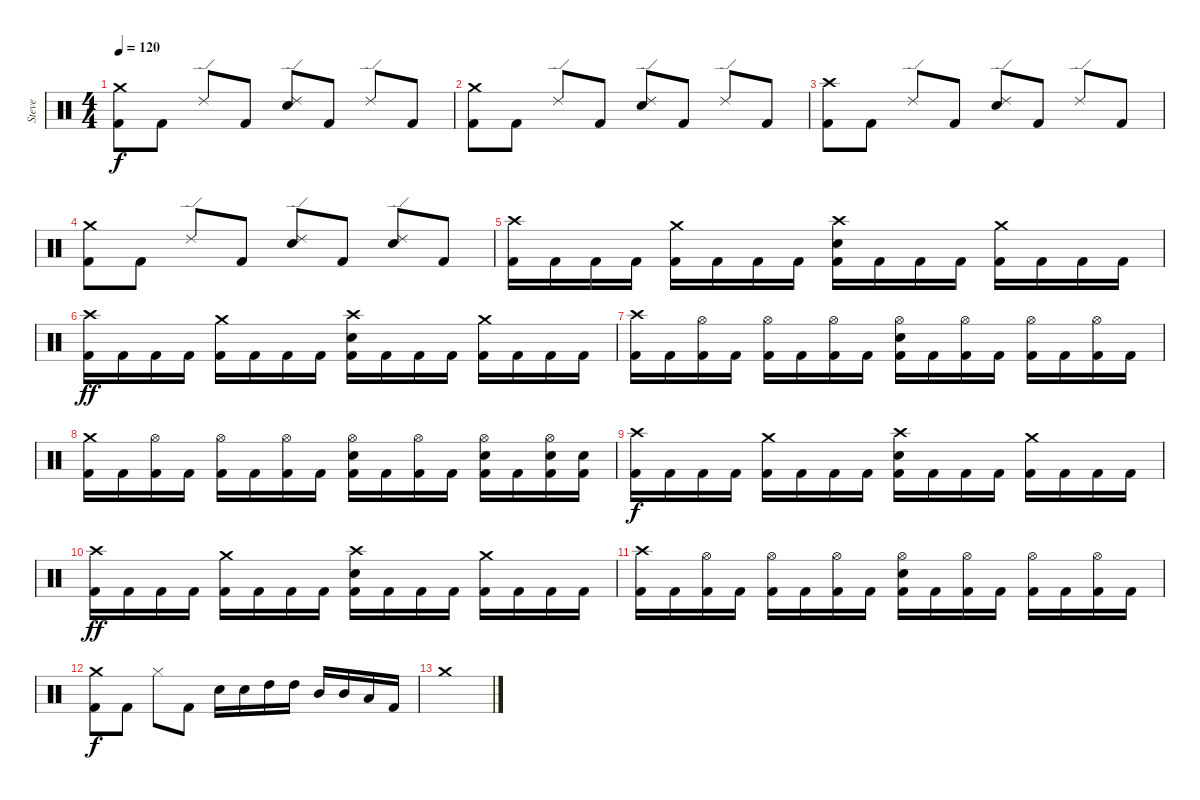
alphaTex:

\track ("Steve" "Steve") {instrument percussion}
\staff {score}
\articulation defaults
\ts (4 4)
\tempo 120
\clef neutral
\ks c
("Crash medium (hit)" "Kick (hit) 2").8{dy f} "Kick (hit) 2".8 "Ride (edge) 2".8 "Kick (hit) 2".8 ("Ride (edge) 2" "Electric Snare (hit)").8 "Kick (hit) 2".8 "Ride (edge) 2".8 "Kick (hit) 2".8 |
("Crash medium (hit)" "Kick (hit) 2").8 "Kick (hit) 2".8 "Ride (edge) 2".8 "Kick (hit) 2".8 ("Ride (edge) 2" "Electric Snare (hit)").8 "Kick (hit) 2".8 "Ride (edge) 2".8 "Kick (hit) 2".8 |
("Crash high (hit)" "Kick (hit) 2").8 "Kick (hit) 2".8 "Ride (edge) 2".8 "Kick (hit) 2".8 ("Ride (edge) 2" "Electric Snare (hit)").8 "Kick (hit) 2".8 "Ride (edge) 2".8 "Kick (hit) 2".8 |
("Crash medium (hit)" "Kick (hit) 2").8 "Kick (hit) 2".8 "Ride (edge) 2".8 "Kick (hit) 2".8 ("Ride (edge) 2" "Electric Snare (hit)").8 "Kick (hit) 2".8 ("Ride (edge) 2" "Electric Snare (hit)").8 "Kick (hit) 2".8 |
("Crash high (hit)" "Kick (hit) 2").16 "Kick (hit) 2".16 "Kick (hit) 2".16 "Kick (hit) 2".16 ("Crash medium (hit)" "Kick (hit) 2").16 "Kick (hit) 2".16 "Kick (hit) 2".16 "Kick (hit) 2".16 ("Crash high (hit)" "Electric Snare (hit)" "Kick (hit) 2").16 "Kick (hit) 2".16 "Kick (hit) 2".16 "Kick (hit) 2".16 ("Crash medium (hit)" "Kick (hit) 2").16 "Kick (hit) 2".16 "Kick (hit) 2".16 "Kick (hit) 2".16 |
("Crash high (hit)" "Kick (hit) 2").16{dy ff} "Kick (hit) 2".16 "Kick (hit) 2".16 "Kick (hit) 2".16 ("Crash medium (hit)" "Kick (hit) 2").16 "Kick (hit) 2".16 "Kick (hit) 2".16 "Kick (hit) 2".16 ("Crash high (hit)" "Electric Snare (hit)" "Kick (hit) 2").16 "Kick (hit) 2".16 "Kick (hit) 2".16 "Kick (hit) 2".16 ("Crash medium (hit)" "Kick (hit) 2").16 "Kick (hit) 2".16 "Kick (hit) 2".16 "Kick (hit) 2".16 |
("Crash high (hit)" "Kick (hit) 2").16 "Kick (hit) 2".16 ("Hi-Hat (open)" "Kick (hit) 2").16 "Kick (hit) 2".16 ("Hi-Hat (open)" "Kick (hit) 2").16 "Kick (hit) 2".16 ("Hi-Hat (open)" "Kick (hit) 2").16 "Kick (hit) 2".16 ("Hi-Hat (open)" "Electric Snare (hit)" "Kick (hit) 2").16 "Kick (hit) 2".16 ("Hi-Hat (open)" "Kick (hit) 2").16 "Kick (hit) 2".16 ("Hi-Hat (open)" "Kick (hit) 2").16 "Kick (hit) 2".16 ("Hi-Hat (open)" "Kick (hit) 2").16 "Kick (hit) 2".16 |
("Crash medium (hit)" "Kick (hit) 2").16 "Kick (hit) 2".16 ("Hi-Hat (open)" "Kick (hit) 2").16 "Kick (hit) 2".16 ("Hi-Hat (open)" "Kick (hit) 2").16 "Kick (hit) 2".16 ("Hi-Hat (open)" "Kick (hit) 2").16 "Kick (hit) 2".16 ("Hi-Hat (open)" "Electric Snare (hit)" "Kick (hit) 2").16 "Kick (hit) 2".16 ("Hi-Hat (open)" "Kick (hit) 2").16 "Kick (hit) 2".16 ("Hi-Hat (open)" "Electric Snare (hit)" "Kick (hit) 2").16 "Kick (hit) 2".16 ("Hi-Hat (open)" "Electric Snare (hit)" "Kick (hit) 2").16 ("Electric Snare (hit)" "Kick (hit) 2").16 |
("Crash high (hit)" "Kick (hit) 2").16{dy f} "Kick (hit) 2".16 "Kick (hit) 2".16 "Kick (hit) 2".16 ("Crash medium (hit)" "Kick (hit) 2").16 "Kick (hit) 2".16 "Kick (hit) 2".16 "Kick (hit) 2".16 ("Crash high (hit)" "Electric Snare (hit)" "Kick (hit) 2").16 "Kick (hit) 2".16 "Kick (hit) 2".16 "Kick (hit) 2".16 ("Crash medium (hit)" "Kick (hit) 2").16 "Kick (hit) 2".16 "Kick (hit) 2".16 "Kick (hit) 2".16 |
("Crash high (hit)" "Kick (hit) 2").16{dy ff} "Kick (hit) 2".16 "Kick (hit) 2".16 "Kick (hit) 2".16 ("Crash medium (hit)" "Kick (hit) 2").16 "Kick (hit) 2".16 "Kick (hit) 2".16 "Kick (hit) 2".16 ("Crash high (hit)" "Electric Snare (hit)" "Kick (hit) 2").16 "Kick (hit) 2".16 "Kick (hit) 2".16 "Kick (hit) 2".16 ("Crash medium (hit)" "Kick (hit) 2").16 "Kick (hit) 2".16 "Kick (hit) 2".16 "Kick (hit) 2".16 |
("Crash high (hit)" "Kick (hit) 2").16 "Kick (hit) 2".16 ("Hi-Hat (open)" "Kick (hit) 2").16 "Kick (hit) 2".16 ("Hi-Hat (open)" "Kick (hit) 2").16 "Kick (hit) 2".16 ("Hi-Hat (open)" "Kick (hit) 2").16 "Kick (hit) 2".16 ("Hi-Hat (open)" "Electric Snare (hit)" "Kick (hit) 2").16 "Kick (hit) 2".16 ("Hi-Hat (open)" "Kick (hit) 2").16 "Kick (hit) 2".16 ("Hi-Hat (open)" "Kick (hit) 2").16 "Kick (hit) 2".16 ("Hi-Hat (open)" "Kick (hit) 2").16 "Kick (hit) 2".16 |
("Crash medium (hit)" "Kick (hit) 2").8{dy f} "Kick (hit) 2".8 "Hi-Hat (closed)".8 "Kick (hit) 2".8 "Electric Snare (hit)".16 "Electric Snare (hit)".16 "High Tom (hit)".16 "High Tom (hit)".16 "Mid Tom (hit)".16 "Mid Tom (hit)".16 "Low Tom (hit)".16 "Kick (hit) 2".16 |
"Crash medium (hit)".1
